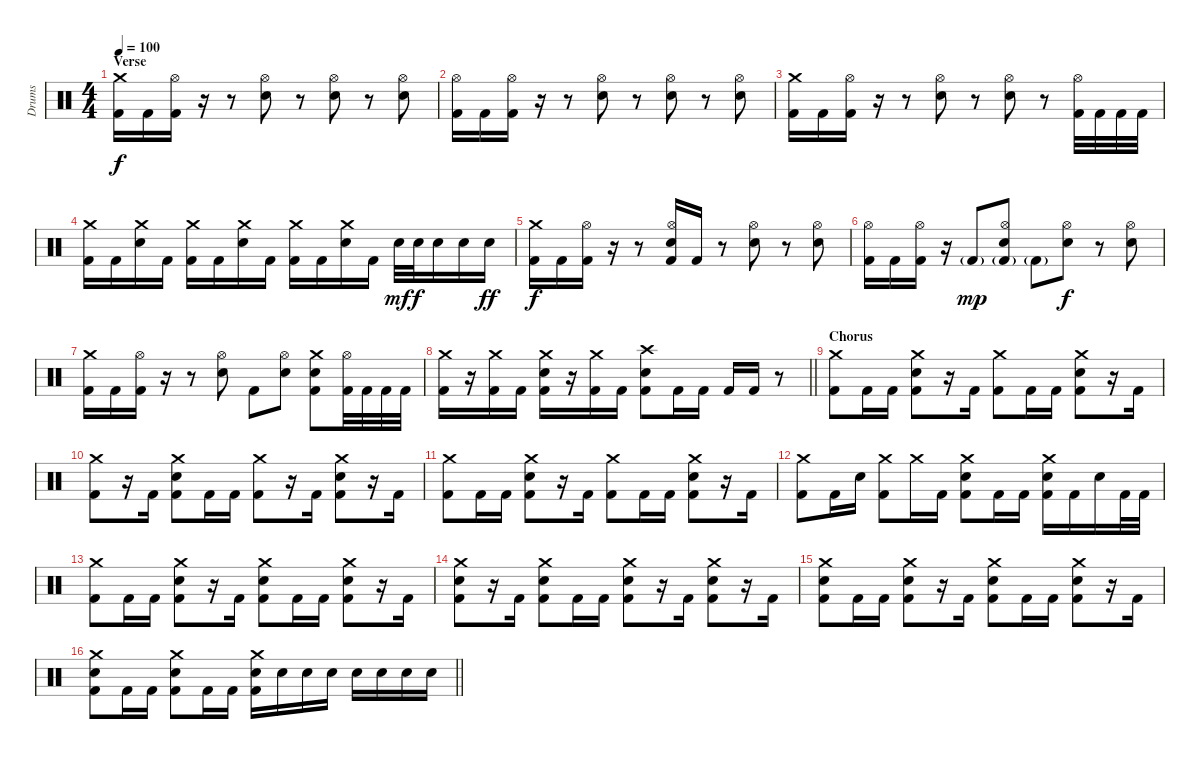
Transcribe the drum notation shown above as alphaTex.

\track ("Drums" "Drums") {instrument percussion}
\staff {score}
\articulation defaults
\ts (4 4)
\section ("" "Verse")
\tempo 100
\clef neutral
\ks c
("Crash medium (hit)" "Kick (hit) 2").16{dy f} "Kick (hit) 2".16 ("Hi-Hat (open)" "Kick (hit) 2").16 r.16 r.8 ("Hi-Hat (open)" "Electric Snare (hit)").8 r.8 ("Hi-Hat (open)" "Electric Snare (hit)").8 r.8 ("Hi-Hat (open)" "Electric Snare (hit)").8 |
("Hi-Hat (open)" "Kick (hit) 2").16 "Kick (hit) 2".16 ("Hi-Hat (open)" "Kick (hit) 2").16 r.16 r.8 ("Hi-Hat (open)" "Electric Snare (hit)").8 r.8 ("Hi-Hat (open)" "Electric Snare (hit)").8 r.8 ("Hi-Hat (open)" "Electric Snare (hit)").8 |
("Crash medium (hit)" "Kick (hit) 2").16 "Kick (hit) 2".16 ("Hi-Hat (open)" "Kick (hit) 2").16 r.16 r.8 ("Hi-Hat (open)" "Electric Snare (hit)").8 r.8 ("Hi-Hat (open)" "Electric Snare (hit)").8 r.8 ("Hi-Hat (open)" "Kick (hit) 2").32 "Kick (hit) 2".32 "Kick (hit) 2".32 "Kick (hit) 2".32 |
("Crash medium (hit)" "Kick (hit) 2").16 "Kick (hit) 2".16 ("Crash medium (hit)" "Electric Snare (hit)").16 "Kick (hit) 2".16 ("Crash medium (hit)" "Kick (hit) 2").16 "Kick (hit) 2".16 ("Crash medium (hit)" "Electric Snare (hit)").16 "Kick (hit) 2".16 ("Crash medium (hit)" "Kick (hit) 2").16 "Kick (hit) 2".16 ("Crash medium (hit)" "Electric Snare (hit)").16 "Kick (hit) 2".16 "Electric Snare (hit)".32{dy mf} "Electric Snare (hit)".32{dy f} "Electric Snare (hit)".16 "Electric Snare (hit)".16 "Electric Snare (hit)".16{dy ff} |
("Crash medium (hit)" "Kick (hit) 2").16{dy f} "Kick (hit) 2".16 ("Hi-Hat (open)" "Kick (hit) 2").16 r.16 r.8 ("Hi-Hat (open)" "Electric Snare (hit)" "Kick (hit) 2").16 "Kick (hit) 2".16 r.8 ("Hi-Hat (open)" "Electric Snare (hit)").8 r.8 ("Hi-Hat (open)" "Electric Snare (hit)").8 |
("Hi-Hat (open)" "Kick (hit) 2").16 "Kick (hit) 2".16 ("Hi-Hat (open)" "Kick (hit) 2").16 r.16 "Kick (hit) 2"{g}.8{dy mp} ("Hi-Hat (open)" "Electric Snare (hit)" "Kick (hit) 2"{g}).8 "Kick (hit) 2"{g}.8 ("Hi-Hat (open)" "Electric Snare (hit)").8{dy f} r.8 ("Hi-Hat (open)" "Electric Snare (hit)").8 |
("Crash medium (hit)" "Kick (hit) 2").16 "Kick (hit) 2".16 ("Hi-Hat (open)" "Kick (hit) 2").16 r.16 r.8 ("Hi-Hat (open)" "Electric Snare (hit)").8 "Kick (hit) 2".8 ("Hi-Hat (open)" "Electric Snare (hit)").8 ("Crash medium (hit)" "Electric Snare (hit)" "Kick (hit) 2").8 ("Hi-Hat (open)" "Kick (hit) 2").32 "Kick (hit) 2".32 "Kick (hit) 2".32 "Kick (hit) 2".32 |
\barLineRight lightlight
("Crash medium (hit)" "Kick (hit) 2").16 r.16 ("Crash medium (hit)" "Kick (hit) 2").16 "Kick (hit) 2".16 ("Crash medium (hit)" "Electric Snare (hit)" "Kick (hit) 2").16 r.16 ("Crash medium (hit)" "Kick (hit) 2").16 "Kick (hit) 2".16 ("Crash high (hit)" "Electric Snare (hit)" "Kick (hit) 2").8 "Kick (hit) 2".16 "Kick (hit) 2".16 "Kick (hit) 2".16 "Kick (hit) 2".16 r.8 |
\section ("" "Chorus")
("Crash medium (hit)" "Kick (hit) 2").8 "Kick (hit) 2".16 "Kick (hit) 2".16 ("Crash medium (hit)" "Electric Snare (hit)" "Kick (hit) 2").8 r.16 "Kick (hit) 2".16 ("Crash medium (hit)" "Kick (hit) 2").8 "Kick (hit) 2".16 "Kick (hit) 2".16 ("Crash medium (hit)" "Electric Snare (hit)" "Kick (hit) 2").8 r.16 "Kick (hit) 2".16 |
("Crash medium (hit)" "Kick (hit) 2").8 r.16 "Kick (hit) 2".16 ("Crash medium (hit)" "Electric Snare (hit)" "Kick (hit) 2").8 "Kick (hit) 2".16 "Kick (hit) 2".16 ("Crash medium (hit)" "Kick (hit) 2").8 r.16 "Kick (hit) 2".16 ("Crash medium (hit)" "Electric Snare (hit)" "Kick (hit) 2").8 r.16 "Kick (hit) 2".16 |
("Crash medium (hit)" "Kick (hit) 2").8 "Kick (hit) 2".16 "Kick (hit) 2".16 ("Crash medium (hit)" "Electric Snare (hit)" "Kick (hit) 2").8 r.16 "Kick (hit) 2".16 ("Crash medium (hit)" "Kick (hit) 2").8 "Kick (hit) 2".16 "Kick (hit) 2".16 ("Crash medium (hit)" "Electric Snare (hit)" "Kick (hit) 2").8 r.16 "Kick (hit) 2".16 |
("Crash medium (hit)" "Kick (hit) 2").8 "Kick (hit) 2".16 "Electric Snare (hit)".16 ("Crash medium (hit)" "Kick (hit) 2").8 "Crash medium (hit)".16 "Kick (hit) 2".16 ("Crash medium (hit)" "Electric Snare (hit)" "Kick (hit) 2").8 "Kick (hit) 2".16 "Kick (hit) 2".16 ("Crash medium (hit)" "Electric Snare (hit)" "Kick (hit) 2").16 "Kick (hit) 2".16 "Electric Snare (hit)".16 "Kick (hit) 2".32 "Kick (hit) 2".32 |
("Crash medium (hit)" "Kick (hit) 2").8 "Kick (hit) 2".16 "Kick (hit) 2".16 ("Crash medium (hit)" "Electric Snare (hit)" "Kick (hit) 2").8 r.16 "Kick (hit) 2".16 ("Crash medium (hit)" "Electric Snare (hit)" "Kick (hit) 2").8 "Kick (hit) 2".16 "Kick (hit) 2".16 ("Crash medium (hit)" "Electric Snare (hit)" "Kick (hit) 2").8 r.16 "Kick (hit) 2".16 |
("Crash medium (hit)" "Electric Snare (hit)" "Kick (hit) 2").8 r.16 "Kick (hit) 2".16 ("Crash medium (hit)" "Electric Snare (hit)" "Kick (hit) 2").8 "Kick (hit) 2".16 "Kick (hit) 2".16 ("Crash medium (hit)" "Electric Snare (hit)" "Kick (hit) 2").8 r.16 "Kick (hit) 2".16 ("Crash medium (hit)" "Electric Snare (hit)" "Kick (hit) 2").8 r.16 "Kick (hit) 2".16 |
("Crash medium (hit)" "Electric Snare (hit)" "Kick (hit) 2").8 "Kick (hit) 2".16 "Kick (hit) 2".16 ("Crash medium (hit)" "Electric Snare (hit)" "Kick (hit) 2").8 r.16 "Kick (hit) 2".16 ("Crash medium (hit)" "Electric Snare (hit)" "Kick (hit) 2").8 "Kick (hit) 2".16 "Kick (hit) 2".16 ("Crash medium (hit)" "Electric Snare (hit)" "Kick (hit) 2").8 r.16 "Kick (hit) 2".16 |
\barLineRight lightlight
("Crash medium (hit)" "Electric Snare (hit)" "Kick (hit) 2").8 "Kick (hit) 2".16 "Kick (hit) 2".16 ("Crash medium (hit)" "Electric Snare (hit)" "Kick (hit) 2").8 "Kick (hit) 2".16 "Kick (hit) 2".16 ("Crash medium (hit)" "Electric Snare (hit)" "Kick (hit) 2").16 "Electric Snare (hit)".16 "Electric Snare (hit)".16 "Electric Snare (hit)".16 "Electric Snare (hit)".16 "Electric Snare (hit)".16 "Electric Snare (hit)".16 "Electric Snare (hit)".16
